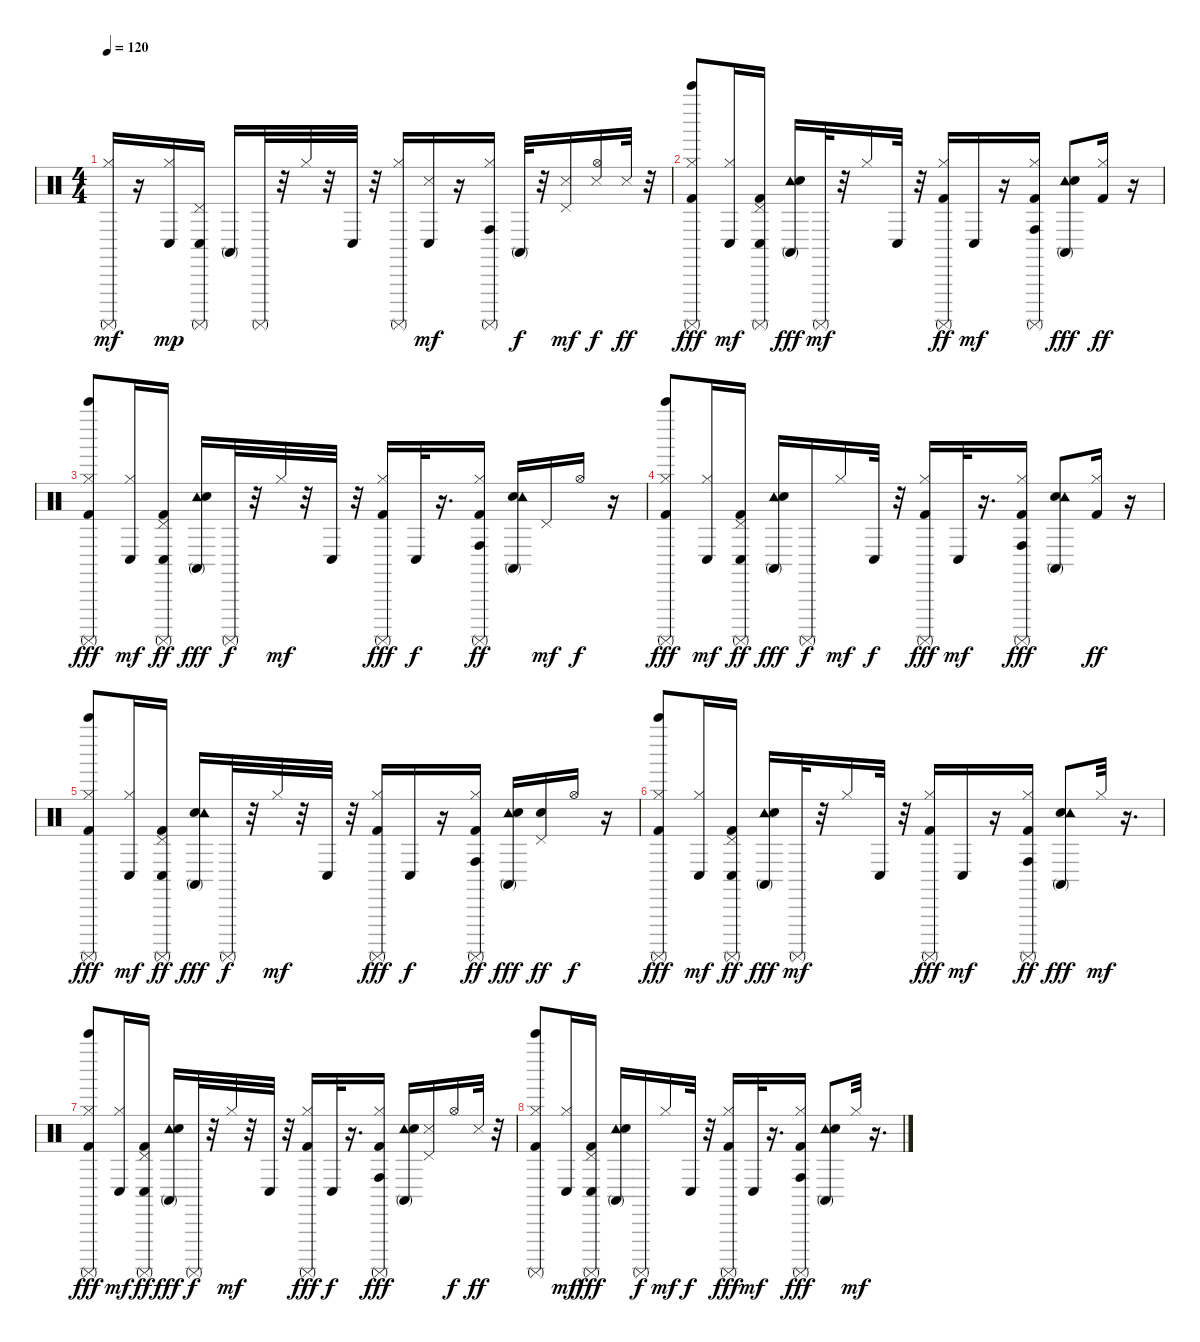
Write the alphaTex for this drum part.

\track "" {instrument percussion}
\staff {score}
\articulation defaults
\ts (4 4)
\tempo 120
\clef neutral
\ks c
("Surdo (mute)" "Hi-Hat (closed)").16{dy mf} r.16 ("Conga low (hit)" "Hi-Hat (closed)").16{dy mp} ("Conga low (hit)" "Surdo (mute)" "Pedal Hi-Hat (hit)").16 "Conga high (mute)".16 "Surdo (mute)".32 r.32 "Hi-Hat (closed)".32 r.32 "Conga low (hit)".32 r.32 ("Hi-Hat (closed)" "Surdo (mute)").16 ("Conga low (hit)" "Snare (side stick) 3").16{dy mf} r.16 ("Conga high (hit)" "Surdo (mute)" "Hi-Hat (closed)").16 "Conga high (mute)".32{dy f} r.32 ("Pedal Hi-Hat (hit)" "Snare (side stick) 3").16{dy mf} ("Hi-Hat (open)" "Snare (side stick) 3").16{dy f} "Snare (side stick) 3".32{dy ff} r.32 |
("Surdo (mute)" "Hi-Hat (closed)" "Kick (hit) 2" "Bell Tree (hit)").8{dy fff} ("Conga low (hit)" "Hi-Hat (closed)").16{dy mf} ("Pedal Hi-Hat (hit)" "Surdo (mute)" "Conga low (hit)" "Kick (hit) 2").16 ("Conga high (mute)" "Tambourine (hit)" "Snare (hit) 2").16{dy fff} "Surdo (mute)".32{dy mf} r.32 "Hi-Hat (closed)".16 "Conga low (hit)".32 r.32 ("Hi-Hat (closed)" "Surdo (mute)" "Kick (hit) 2").16{dy ff} "Conga low (hit)".16{dy mf} r.16 ("Hi-Hat (closed)" "Surdo (mute)" "Conga high (hit)" "Kick (hit) 2").16 ("Conga high (mute)" "Tambourine (hit)" "Snare (hit) 2").8{dy fff} ("Hi-Hat (closed)" "Kick (hit) 2").16{dy ff} r.16 |
("Surdo (mute)" "Hi-Hat (closed)" "Kick (hit) 2" "Bell Tree (hit)").8{dy fff} ("Conga low (hit)" "Hi-Hat (closed)").16{dy mf} ("Conga low (hit)" "Pedal Hi-Hat (hit)" "Surdo (mute)" "Kick (hit) 2").16{dy ff} ("Conga high (mute)" "Tambourine (hit)" "Snare (hit) 2").16{dy fff} "Surdo (mute)".32{dy f} r.32 "Hi-Hat (closed)".32{dy mf} r.32 "Conga low (hit)".32 r.32 ("Hi-Hat (closed)" "Surdo (mute)" "Kick (hit) 2").16{dy fff} "Conga low (hit)".32{dy f} r.16{d} ("Surdo (mute)" "Hi-Hat (closed)" "Conga high (hit)" "Kick (hit) 2").16{dy ff} ("Conga high (mute)" "Snare (hit) 2" "Tambourine (hit)").16 "Pedal Hi-Hat (hit)".16{dy mf} "Hi-Hat (open)".16{dy f} r.16 |
("Surdo (mute)" "Hi-Hat (closed)" "Bell Tree (hit)" "Kick (hit) 2").8{dy fff} ("Conga low (hit)" "Hi-Hat (closed)").16{dy mf} ("Conga low (hit)" "Pedal Hi-Hat (hit)" "Surdo (mute)" "Kick (hit) 2").16{dy ff} ("Conga high (mute)" "Tambourine (hit)" "Snare (hit) 2").16{dy fff} "Surdo (mute)".16{dy f} "Hi-Hat (closed)".16{dy mf} "Conga low (hit)".32{dy f} r.32 ("Hi-Hat (closed)" "Surdo (mute)" "Kick (hit) 2").16{dy fff} "Conga low (hit)".32{dy mf} r.16{d} ("Hi-Hat (closed)" "Surdo (mute)" "Conga high (hit)" "Kick (hit) 2").16{dy fff} ("Conga high (mute)" "Snare (hit) 2" "Tambourine (hit)").8 ("Hi-Hat (closed)" "Kick (hit) 2").16{dy ff} r.16 |
("Surdo (mute)" "Hi-Hat (closed)" "Kick (hit) 2" "Bell Tree (hit)").8{dy fff} ("Conga low (hit)" "Hi-Hat (closed)").16{dy mf} ("Conga low (hit)" "Surdo (mute)" "Pedal Hi-Hat (hit)" "Kick (hit) 2").16{dy ff} ("Conga high (mute)" "Snare (hit) 2" "Tambourine (hit)").16{dy fff} "Surdo (mute)".32{dy f} r.32 "Hi-Hat (closed)".32{dy mf} r.32 "Conga low (hit)".32 r.32 ("Hi-Hat (closed)" "Surdo (mute)" "Kick (hit) 2").16{dy fff} "Conga low (hit)".16{dy f} r.16 ("Conga high (hit)" "Surdo (mute)" "Hi-Hat (closed)" "Kick (hit) 2").16{dy ff} ("Conga high (mute)" "Tambourine (hit)" "Snare (hit) 2").16{dy fff} ("Pedal Hi-Hat (hit)" "Snare (hit) 2").16{dy ff} "Hi-Hat (open)".16{dy f} r.16 |
("Surdo (mute)" "Hi-Hat (closed)" "Bell Tree (hit)" "Kick (hit) 2").8{dy fff} ("Conga low (hit)" "Hi-Hat (closed)").16{dy mf} ("Pedal Hi-Hat (hit)" "Surdo (mute)" "Conga low (hit)" "Kick (hit) 2").16{dy ff} ("Conga high (mute)" "Tambourine (hit)" "Snare (hit) 2").16{dy fff} "Surdo (mute)".32{dy mf} r.32 "Hi-Hat (closed)".16 "Conga low (hit)".32 r.32 ("Hi-Hat (closed)" "Surdo (mute)" "Kick (hit) 2").16{dy fff} "Conga low (hit)".16{dy mf} r.16 ("Hi-Hat (closed)" "Surdo (mute)" "Conga high (hit)" "Kick (hit) 2").16{dy ff} ("Conga high (mute)" "Snare (hit) 2" "Tambourine (hit)").8{dy fff} "Hi-Hat (closed)".32{dy mf} r.16{d} |
("Surdo (mute)" "Hi-Hat (closed)" "Kick (hit) 2" "Bell Tree (hit)").8{dy fff} ("Conga low (hit)" "Hi-Hat (closed)").16{dy mf} ("Conga low (hit)" "Pedal Hi-Hat (hit)" "Surdo (mute)" "Kick (hit) 2").16{dy ff} ("Conga high (mute)" "Tambourine (hit)" "Snare (hit) 2").16{dy fff} "Surdo (mute)".32{dy f} r.32 "Hi-Hat (closed)".32{dy mf} r.32 "Conga low (hit)".32 r.32 ("Hi-Hat (closed)" "Surdo (mute)" "Kick (hit) 2").16{dy fff} "Conga low (hit)".32{dy f} r.16{d} ("Surdo (mute)" "Hi-Hat (closed)" "Conga high (hit)" "Kick (hit) 2").16{dy fff} ("Conga high (mute)" "Tambourine (hit)" "Snare (hit) 2").16 ("Pedal Hi-Hat (hit)" "Snare (side stick) 3").16 "Hi-Hat (open)".16{dy f} "Snare (side stick) 3".32{dy ff} r.32 |
("Surdo (mute)" "Hi-Hat (closed)" "Kick (hit) 2" "Bell Tree (hit)").8 ("Conga low (hit)" "Hi-Hat (closed)").16{dy mf} ("Conga low (hit)" "Pedal Hi-Hat (hit)" "Surdo (mute)" "Kick (hit) 2").16{dy fff} ("Conga high (mute)" "Tambourine (hit)" "Snare (hit) 2").16 "Surdo (mute)".16{dy f} "Hi-Hat (closed)".16{dy mf} "Conga low (hit)".32{dy f} r.32 ("Hi-Hat (closed)" "Surdo (mute)" "Kick (hit) 2").16{dy fff} "Conga low (hit)".32{dy mf} r.16{d} ("Hi-Hat (closed)" "Surdo (mute)" "Conga high (hit)" "Kick (hit) 2").16{dy fff} ("Conga high (mute)" "Tambourine (hit)" "Snare (hit) 2").8 "Hi-Hat (closed)".32{dy mf} r.16{d}
